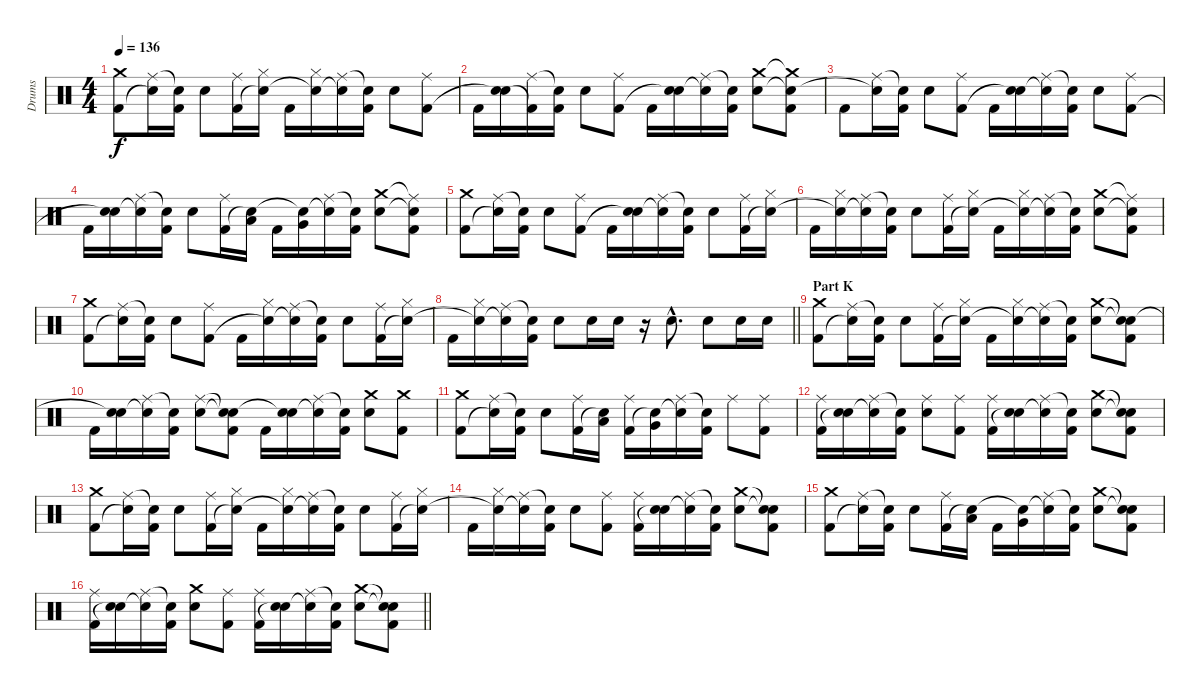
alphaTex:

\track ("Drums" "Drums") {instrument percussion}
\staff {score}
\articulation defaults
\ts (4 4)
\tempo 136
\clef neutral
\ks c
("Crash medium (hit)" "Kick (hit) 2").8{dy f} ("Ride (middle)" "Snare (hit)"{t}).16 ("Snare (hit)"{t} "Kick (hit) 2").16 "Electric Snare (hit)".8 ("Ride (middle)" "Kick (hit) 2").16 ("Hi-Hat (closed)" "Snare (hit)"{t}).16 "Kick (hit) 2".16 ("Hi-Hat (closed)" "Snare (hit)"{t}).16 ("Ride (middle)" "Snare (hit)"{t}).16 ("Snare (hit)"{t} "Kick (hit) 2").16 "Electric Snare (hit)".8 ("Ride (middle)" "Kick (hit) 2").8 |
"Kick (hit) 2".16 ("Electric Snare (hit)" "Snare (hit)"{t}).16 ("Ride (middle)" "Kick (hit) 2"{t}).16 ("Snare (hit)"{t} "Kick (hit) 2").16 "Electric Snare (hit)".8 ("Ride (middle)" "Kick (hit) 2").8 "Kick (hit) 2".16 ("Electric Snare (hit)" "Snare (hit)"{t}).16 ("Ride (middle)" "Snare (hit)"{t}).16 ("Snare (hit)"{t} "Kick (hit) 2").16 ("Crash medium (hit)" "Electric Snare (hit)").8 ("Crash medium (hit)"{t} "Snare (hit)"{t} "Kick (hit) 2").8 |
"Kick (hit) 2".8 ("Ride (middle)" "Snare (hit)"{t}).16 ("Snare (hit)"{t} "Kick (hit) 2").16 "Electric Snare (hit)".8 ("Ride (middle)" "Kick (hit) 2").8 "Kick (hit) 2".16 ("Electric Snare (hit)" "Snare (hit)"{t}).16 ("Ride (middle)" "Snare (hit)"{t}).16 ("Snare (hit)"{t} "Kick (hit) 2").16 "Electric Snare (hit)".8 ("Ride (middle)" "Kick (hit) 2").8 |
"Kick (hit) 2".16 ("Electric Snare (hit)" "Snare (hit)"{t}).16 ("Ride (middle)" "Snare (hit)"{t}).16 ("Snare (hit)"{t} "Kick (hit) 2").16 "Electric Snare (hit)".8 ("Ride (middle)" "Kick (hit) 2").16 ("Low Tom (hit)" "Snare (hit)"{t}).16 "Kick (hit) 2".16 ("Very Low Tom (hit)" "Snare (hit)"{t}).16 ("Ride (middle)" "Snare (hit)"{t}).16 ("Snare (hit)"{t} "Kick (hit) 2").16 ("Crash medium (hit)" "Electric Snare (hit)").8 ("Ride (middle)"{t} "Snare (hit)"{t} "Kick (hit) 2").8 |
("Crash medium (hit)" "Kick (hit) 2").8 ("Ride (middle)" "Snare (hit)"{t}).16 ("Snare (hit)"{t} "Kick (hit) 2").16 "Electric Snare (hit)".8 ("Ride (middle)" "Kick (hit) 2").8 "Kick (hit) 2".16 ("Electric Snare (hit)" "Snare (hit)"{t}).16 ("Ride (middle)" "Snare (hit)"{t}).16 ("Snare (hit)"{t} "Kick (hit) 2").16 "Electric Snare (hit)".8 ("Ride (middle)" "Kick (hit) 2").16 ("Hi-Hat (closed)" "Snare (hit)"{t}).16 |
"Kick (hit) 2".16 ("Hi-Hat (closed)" "Snare (hit)"{t}).16 ("Ride (middle)" "Snare (hit)"{t}).16 ("Snare (hit)"{t} "Kick (hit) 2").16 "Electric Snare (hit)".8 ("Ride (middle)" "Kick (hit) 2").16 ("Hi-Hat (closed)" "Snare (hit)"{t}).16 "Kick (hit) 2".16 ("Hi-Hat (closed)" "Snare (hit)"{t}).16 ("Ride (middle)" "Snare (hit)"{t}).16 ("Snare (hit)"{t} "Kick (hit) 2").16 ("Crash medium (hit)" "Electric Snare (hit)").8 ("Ride (middle)"{t} "Snare (hit)"{t} "Kick (hit) 2").8 |
("Crash medium (hit)" "Kick (hit) 2").8 ("Ride (middle)" "Snare (hit)"{t}).16 ("Snare (hit)"{t} "Kick (hit) 2").16 "Electric Snare (hit)".8 ("Ride (middle)" "Kick (hit) 2").8 "Kick (hit) 2".16 ("Hi-Hat (closed)" "Snare (hit)"{t}).16 ("Ride (middle)" "Snare (hit)"{t}).16 ("Snare (hit)"{t} "Kick (hit) 2").16 "Electric Snare (hit)".8 ("Ride (middle)" "Kick (hit) 2").16 ("Hi-Hat (closed)" "Snare (hit)"{t}).16 |
\barLineRight lightlight "Kick (hit) 2".16
("Hi-Hat (closed)" "Snare (hit)"{t}).16 ("Ride (middle)" "Snare (hit)"{t}).16 ("Snare (hit)"{t} "Kick (hit) 2").16 "Electric Snare (hit)".8 "Electric Snare (hit)".16 "Electric Snare (hit)".16 r.16 "Electric Snare (hit)"{hac}.8{d} "Electric Snare (hit)".8 "Electric Snare (hit)".16 "Electric Snare (hit)".16 |
\section ("" "Part K")
("Crash medium (hit)" "Kick (hit) 2").8 ("Ride (middle)" "Snare (hit)"{t}).16 ("Snare (hit)"{t} "Kick (hit) 2").16 "Electric Snare (hit)".8 ("Ride (middle)" "Kick (hit) 2").16 ("Hi-Hat (closed)" "Snare (hit)"{t}).16 "Kick (hit) 2".16 ("Hi-Hat (closed)" "Snare (hit)"{t}).16 ("Ride (middle)" "Snare (hit)"{t}).16 ("Snare (hit)"{t} "Kick (hit) 2").16 ("Crash medium (hit)" "Electric Snare (hit)").8 ("Snare (hit)"{t} "Snare (hit)"{t} "Kick (hit) 2").8 |
"Kick (hit) 2".16 ("Electric Snare (hit)" "Snare (hit)"{t}).16 ("Ride (middle)" "Snare (hit)"{t}).16 ("Snare (hit)"{t} "Kick (hit) 2").16 ("Ride (middle)" "Electric Snare (hit)").8 ("Snare (hit)"{t} "Snare (hit)"{t} "Kick (hit) 2").8 "Kick (hit) 2".16 ("Electric Snare (hit)" "Snare (hit)"{t}).16 ("Ride (middle)" "Snare (hit)"{t}).16 ("Snare (hit)"{t} "Kick (hit) 2").16 ("Crash medium (hit)" "Electric Snare (hit)").8 ("Crash medium (hit)" "Kick (hit) 2").8 |
("Crash medium (hit)" "Kick (hit) 2").8 ("Ride (middle)" "Snare (hit)"{t}).16 ("Snare (hit)"{t} "Kick (hit) 2").16 "Electric Snare (hit)".8 ("Ride (middle)" "Kick (hit) 2").16 ("Low Tom (hit)" "Snare (hit)"{t}).16 ("Ride (middle)" "Kick (hit) 2").16 ("Very Low Tom (hit)" "Snare (hit)"{t}).16 ("Ride (middle)" "Snare (hit)"{t}).16 ("Snare (hit)"{t} "Kick (hit) 2").16 "Ride (middle)".8 ("Ride (middle)" "Kick (hit) 2").8 |
("Ride (middle)" "Kick (hit) 2").16 ("Electric Snare (hit)" "Snare (hit)"{t}).16 ("Ride (middle)" "Snare (hit)"{t}).16 ("Snare (hit)"{t} "Kick (hit) 2").16 ("Ride (middle)" "Electric Snare (hit)").8 ("Ride (middle)" "Kick (hit) 2").8 ("Ride (middle)" "Kick (hit) 2").16 ("Electric Snare (hit)" "Snare (hit)"{t}).16 ("Ride (middle)" "Snare (hit)"{t}).16 ("Snare (hit)"{t} "Kick (hit) 2").16 ("Crash medium (hit)" "Electric Snare (hit)").8 ("Snare (hit)"{t} "Snare (hit)"{t} "Kick (hit) 2").8 |
("Crash medium (hit)" "Kick (hit) 2").8 ("Ride (middle)" "Snare (hit)"{t}).16 ("Snare (hit)"{t} "Kick (hit) 2").16 "Electric Snare (hit)".8 ("Ride (middle)" "Kick (hit) 2").16 ("Hi-Hat (closed)" "Snare (hit)"{t}).16 "Kick (hit) 2".16 ("Hi-Hat (closed)" "Snare (hit)"{t}).16 ("Ride (middle)" "Snare (hit)"{t}).16 ("Snare (hit)"{t} "Kick (hit) 2").16 "Electric Snare (hit)".8 ("Ride (middle)" "Kick (hit) 2").16 ("Hi-Hat (closed)" "Snare (hit)"{t}).16 |
"Kick (hit) 2".16 ("Hi-Hat (closed)" "Snare (hit)"{t}).16 ("Ride (middle)" "Snare (hit)"{t}).16 ("Snare (hit)"{t} "Kick (hit) 2").16 "Electric Snare (hit)".8 ("Ride (middle)" "Kick (hit) 2").8 ("Ride (middle)" "Kick (hit) 2").16 ("Electric Snare (hit)" "Snare (hit)"{t}).16 ("Ride (middle)" "Snare (hit)"{t}).16 ("Snare (hit)"{t} "Kick (hit) 2").16 ("Crash medium (hit)" "Electric Snare (hit)").8 ("Snare (hit)"{t} "Snare (hit)"{t} "Kick (hit) 2").8 |
("Crash medium (hit)" "Kick (hit) 2").8 ("Ride (middle)" "Snare (hit)"{t}).16 ("Snare (hit)"{t} "Kick (hit) 2").16 "Electric Snare (hit)".8 ("Ride (middle)" "Kick (hit) 2").16 ("Low Tom (hit)" "Snare (hit)"{t}).16 "Kick (hit) 2".16 ("Very Low Tom (hit)" "Snare (hit)"{t}).16 ("Ride (middle)" "Snare (hit)"{t}).16 ("Snare (hit)"{t} "Kick (hit) 2").16 ("Crash medium (hit)" "Electric Snare (hit)").8 ("Snare (hit)"{t} "Snare (hit)"{t} "Kick (hit) 2").8 |
\barLineRight lightlight
("Ride (middle)" "Kick (hit) 2").16 ("Electric Snare (hit)" "Snare (hit)"{t}).16 ("Ride (middle)" "Snare (hit)"{t}).16 ("Snare (hit)"{t} "Kick (hit) 2").16 ("Crash medium (hit)" "Electric Snare (hit)").8 ("Ride (middle)" "Kick (hit) 2").8 ("Ride (middle)" "Kick (hit) 2").16 ("Electric Snare (hit)" "Snare (hit)"{t}).16 ("Ride (middle)" "Snare (hit)"{t}).16 ("Snare (hit)"{t} "Kick (hit) 2").16 ("Crash medium (hit)" "Electric Snare (hit)").8 ("Snare (hit)"{t} "Snare (hit)"{t} "Kick (hit) 2").8
